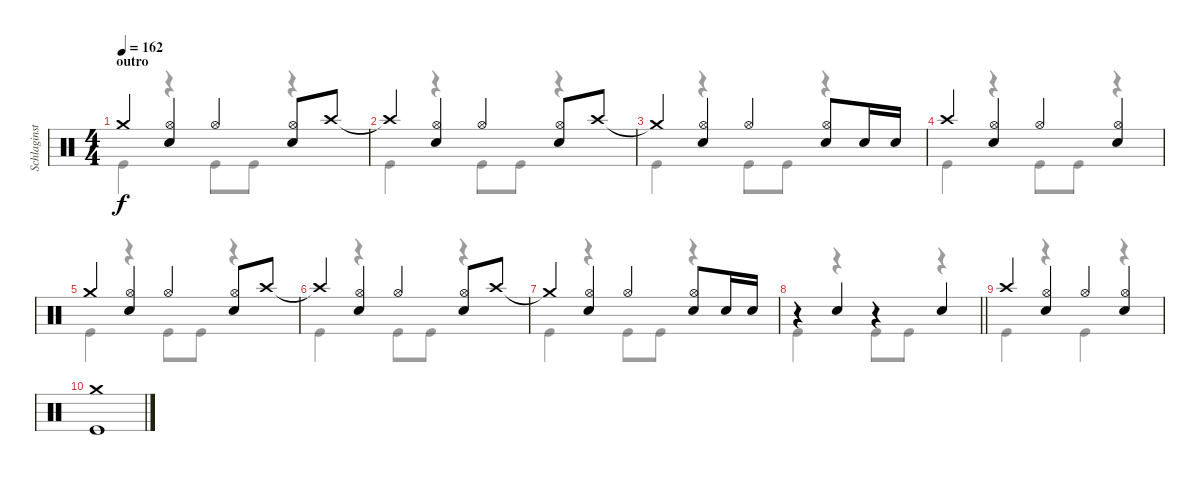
\track ("Schlaginstrumente - Auswahl" "Schlaginst") {instrument percussion}
\staff {score}
\articulation defaults
\voice
\ts (4 4)
\section ("" "outro")
\tempo 162
\clef neutral
\ks c "Crash medium (hit)".4{dy f}
("Hi-Hat (open)" "Snare (hit) 2").4 "Hi-Hat (open)".4 ("Hi-Hat (open)" "Snare (hit) 2").8 "Crash high (hit)".8 |
"Crash high (hit)"{t}.4 ("Hi-Hat (open)" "Snare (hit) 2").4 "Hi-Hat (open)".4 ("Hi-Hat (open)" "Snare (hit) 2").8 "Crash high (hit)".8 |
"Crash medium (hit)"{t}.4 ("Hi-Hat (open)" "Snare (hit) 2").4 "Hi-Hat (open)".4 ("Hi-Hat (open)" "Snare (hit) 2").8 "Snare (hit) 2".16 "Snare (hit) 2".16 |
"Crash high (hit)".4 ("Hi-Hat (open)" "Snare (hit) 2").4 "Hi-Hat (open)".4 ("Hi-Hat (open)" "Snare (hit) 2").4 |
"Crash medium (hit)".4 ("Hi-Hat (open)" "Snare (hit) 2").4 "Hi-Hat (open)".4 ("Hi-Hat (open)" "Snare (hit) 2").8 "Crash high (hit)".8 |
"Crash high (hit)"{t}.4 ("Hi-Hat (open)" "Snare (hit) 2").4 "Hi-Hat (open)".4 ("Hi-Hat (open)" "Snare (hit) 2").8 "Crash high (hit)".8 |
"Crash medium (hit)"{t}.4 ("Hi-Hat (open)" "Snare (hit) 2").4 "Hi-Hat (open)".4 ("Hi-Hat (open)" "Snare (hit) 2").8 "Snare (hit) 2".16 "Snare (hit) 2".16 |
\barLineRight lightlight
r.4 "Snare (hit) 2".4 r.4 "Snare (hit) 2".4 |
"Crash high (hit)".4 ("Hi-Hat (open)" "Snare (hit) 2").4 "Hi-Hat (open)".4 ("Hi-Hat (open)" "Snare (hit) 2").4 |
("Kick (hit)" "Crash medium (hit)").1 |
\voice
\clef neutral
\ottava regular
\simile none
\ks c "Kick (hit)".4{dy f}
r.4 "Kick (hit)".8 "Kick (hit)".8 r.4 |
"Kick (hit)".4 r.4 "Kick (hit)".8 "Kick (hit)".8 r.4 |
"Kick (hit)".4 r.4 "Kick (hit)".8 "Kick (hit)".8 r.4 |
"Kick (hit)".4 r.4 "Kick (hit)".8 "Kick (hit)".8 r.4 |
"Kick (hit)".4 r.4 "Kick (hit)".8 "Kick (hit)".8 r.4 |
"Kick (hit)".4 r.4 "Kick (hit)".8 "Kick (hit)".8 r.4 |
"Kick (hit)".4 r.4 "Kick (hit)".8 "Kick (hit)".8 r.4 |
\barLineRight lightlight "Kick (hit)".4
r.4 "Kick (hit)".8 "Kick (hit)".8 r.4 |
"Kick (hit)".4 r.4 "Kick (hit)".4 r.4 |
|
